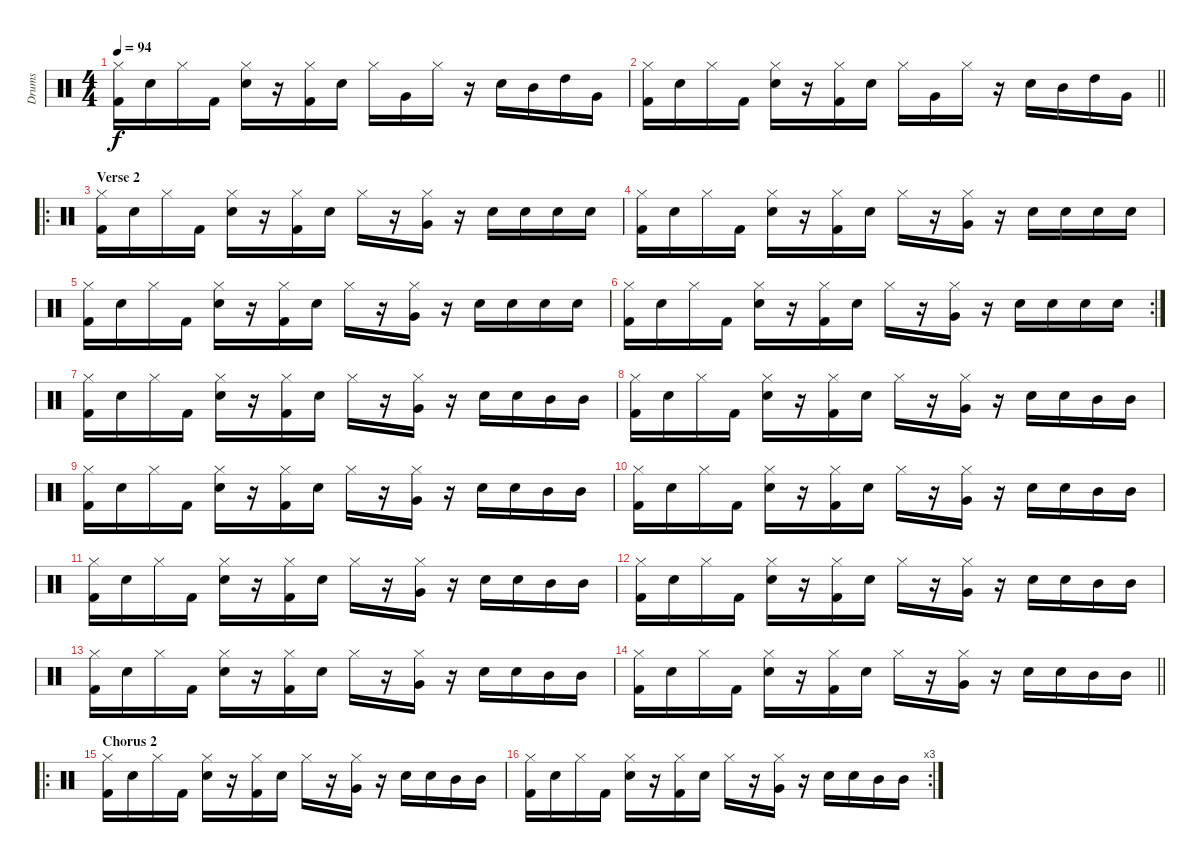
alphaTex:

\track ("Drums" "Drums") {instrument percussion}
\staff {score}
\articulation defaults
\ts (4 4)
\tempo 94
\clef neutral
\ks c
("Hi-Hat (closed)" "Kick (hit) 2").16{dy f} "Snare (hit) 2".16 "Hi-Hat (closed)".16 "Kick (hit) 2".16 ("Hi-Hat (closed)" "Snare (hit) 2").16 r.16 ("Hi-Hat (closed)" "Kick (hit) 2").16 "Snare (hit) 2".16 "Hi-Hat (closed)".16 "Very Low Tom (hit)".16 "Hi-Hat (closed)".16 r.16 "Snare (hit) 2".16 "Mid Tom (hit)".16 "High Tom (hit)".16 "Very Low Tom (hit)".16 |
\barLineRight lightlight
("Hi-Hat (closed)" "Kick (hit) 2").16 "Snare (hit) 2".16 "Hi-Hat (closed)".16 "Kick (hit) 2".16 ("Hi-Hat (closed)" "Snare (hit) 2").16 r.16 ("Hi-Hat (closed)" "Kick (hit) 2").16 "Snare (hit) 2".16 "Hi-Hat (closed)".16 "Very Low Tom (hit)".16 "Hi-Hat (closed)".16 r.16 "Snare (hit) 2".16 "Mid Tom (hit)".16 "High Tom (hit)".16 "Very Low Tom (hit)".16 |
\ro
\section ("" "Verse 2")
("Hi-Hat (closed)" "Kick (hit) 2").16 "Snare (hit) 2".16 "Hi-Hat (closed)".16 "Kick (hit) 2".16 ("Hi-Hat (closed)" "Snare (hit) 2").16 r.16 ("Hi-Hat (closed)" "Kick (hit) 2").16 "Snare (hit) 2".16 "Hi-Hat (closed)".16 r.16 ("Hi-Hat (closed)" "Very Low Tom (hit)").16 r.16 "Snare (hit) 2".16 "Snare (hit) 2".16 "Snare (hit) 2".16 "Snare (hit) 2".16 |
("Hi-Hat (closed)" "Kick (hit) 2").16 "Snare (hit) 2".16 "Hi-Hat (closed)".16 "Kick (hit) 2".16 ("Hi-Hat (closed)" "Snare (hit) 2").16 r.16 ("Hi-Hat (closed)" "Kick (hit) 2").16 "Snare (hit) 2".16 "Hi-Hat (closed)".16 r.16 ("Hi-Hat (closed)" "Very Low Tom (hit)").16 r.16 "Snare (hit) 2".16 "Snare (hit) 2".16 "Snare (hit) 2".16 "Snare (hit) 2".16 |
("Hi-Hat (closed)" "Kick (hit) 2").16 "Snare (hit) 2".16 "Hi-Hat (closed)".16 "Kick (hit) 2".16 ("Hi-Hat (closed)" "Snare (hit) 2").16 r.16 ("Hi-Hat (closed)" "Kick (hit) 2").16 "Snare (hit) 2".16 "Hi-Hat (closed)".16 r.16 ("Hi-Hat (closed)" "Very Low Tom (hit)").16 r.16 "Snare (hit) 2".16 "Snare (hit) 2".16 "Snare (hit) 2".16 "Snare (hit) 2".16 |
\rc 2
("Hi-Hat (closed)" "Kick (hit) 2").16 "Snare (hit) 2".16 "Hi-Hat (closed)".16 "Kick (hit) 2".16 ("Hi-Hat (closed)" "Snare (hit) 2").16 r.16 ("Hi-Hat (closed)" "Kick (hit) 2").16 "Snare (hit) 2".16 "Hi-Hat (closed)".16 r.16 ("Hi-Hat (closed)" "Very Low Tom (hit)").16 r.16 "Snare (hit) 2".16 "Snare (hit) 2".16 "Snare (hit) 2".16 "Snare (hit) 2".16 |
("Hi-Hat (closed)" "Kick (hit) 2").16 "Snare (hit) 2".16 "Hi-Hat (closed)".16 "Kick (hit) 2".16 ("Hi-Hat (closed)" "Snare (hit) 2").16 r.16 ("Hi-Hat (closed)" "Kick (hit) 2").16 "Snare (hit) 2".16 "Hi-Hat (closed)".16 r.16 ("Hi-Hat (closed)" "Very Low Tom (hit)").16 r.16 "Snare (hit) 2".16 "Snare (hit) 2".16 "Mid Tom (hit)".16 "Mid Tom (hit)".16 |
("Hi-Hat (closed)" "Kick (hit) 2").16 "Snare (hit) 2".16 "Hi-Hat (closed)".16 "Kick (hit) 2".16 ("Hi-Hat (closed)" "Snare (hit) 2").16 r.16 ("Hi-Hat (closed)" "Kick (hit) 2").16 "Snare (hit) 2".16 "Hi-Hat (closed)".16 r.16 ("Hi-Hat (closed)" "Very Low Tom (hit)").16 r.16 "Snare (hit) 2".16 "Snare (hit) 2".16 "Mid Tom (hit)".16 "Mid Tom (hit)".16 |
("Hi-Hat (closed)" "Kick (hit) 2").16 "Snare (hit) 2".16 "Hi-Hat (closed)".16 "Kick (hit) 2".16 ("Hi-Hat (closed)" "Snare (hit) 2").16 r.16 ("Hi-Hat (closed)" "Kick (hit) 2").16 "Snare (hit) 2".16 "Hi-Hat (closed)".16 r.16 ("Hi-Hat (closed)" "Very Low Tom (hit)").16 r.16 "Snare (hit) 2".16 "Snare (hit) 2".16 "Mid Tom (hit)".16 "Mid Tom (hit)".16 |
("Hi-Hat (closed)" "Kick (hit) 2").16 "Snare (hit) 2".16 "Hi-Hat (closed)".16 "Kick (hit) 2".16 ("Hi-Hat (closed)" "Snare (hit) 2").16 r.16 ("Hi-Hat (closed)" "Kick (hit) 2").16 "Snare (hit) 2".16 "Hi-Hat (closed)".16 r.16 ("Hi-Hat (closed)" "Very Low Tom (hit)").16 r.16 "Snare (hit) 2".16 "Snare (hit) 2".16 "Mid Tom (hit)".16 "Mid Tom (hit)".16 |
("Hi-Hat (closed)" "Kick (hit) 2").16 "Snare (hit) 2".16 "Hi-Hat (closed)".16 "Kick (hit) 2".16 ("Hi-Hat (closed)" "Snare (hit) 2").16 r.16 ("Hi-Hat (closed)" "Kick (hit) 2").16 "Snare (hit) 2".16 "Hi-Hat (closed)".16 r.16 ("Hi-Hat (closed)" "Very Low Tom (hit)").16 r.16 "Snare (hit) 2".16 "Snare (hit) 2".16 "Mid Tom (hit)".16 "Mid Tom (hit)".16 |
("Hi-Hat (closed)" "Kick (hit) 2").16 "Snare (hit) 2".16 "Hi-Hat (closed)".16 "Kick (hit) 2".16 ("Hi-Hat (closed)" "Snare (hit) 2").16 r.16 ("Hi-Hat (closed)" "Kick (hit) 2").16 "Snare (hit) 2".16 "Hi-Hat (closed)".16 r.16 ("Hi-Hat (closed)" "Very Low Tom (hit)").16 r.16 "Snare (hit) 2".16 "Snare (hit) 2".16 "Mid Tom (hit)".16 "Mid Tom (hit)".16 |
("Hi-Hat (closed)" "Kick (hit) 2").16 "Snare (hit) 2".16 "Hi-Hat (closed)".16 "Kick (hit) 2".16 ("Hi-Hat (closed)" "Snare (hit) 2").16 r.16 ("Hi-Hat (closed)" "Kick (hit) 2").16 "Snare (hit) 2".16 "Hi-Hat (closed)".16 r.16 ("Hi-Hat (closed)" "Very Low Tom (hit)").16 r.16 "Snare (hit) 2".16 "Snare (hit) 2".16 "Mid Tom (hit)".16 "Mid Tom (hit)".16 |
\barLineRight lightlight
("Hi-Hat (closed)" "Kick (hit) 2").16 "Snare (hit) 2".16 "Hi-Hat (closed)".16 "Kick (hit) 2".16 ("Hi-Hat (closed)" "Snare (hit) 2").16 r.16 ("Hi-Hat (closed)" "Kick (hit) 2").16 "Snare (hit) 2".16 "Hi-Hat (closed)".16 r.16 ("Hi-Hat (closed)" "Very Low Tom (hit)").16 r.16 "Snare (hit) 2".16 "Snare (hit) 2".16 "Mid Tom (hit)".16 "Mid Tom (hit)".16 |
\ro
\section ("" "Chorus 2")
("Hi-Hat (closed)" "Kick (hit) 2").16 "Snare (hit) 2".16 "Hi-Hat (closed)".16 "Kick (hit) 2".16 ("Hi-Hat (closed)" "Snare (hit) 2").16 r.16 ("Hi-Hat (closed)" "Kick (hit) 2").16 "Snare (hit) 2".16 "Hi-Hat (closed)".16 r.16 ("Hi-Hat (closed)" "Very Low Tom (hit)").16 r.16 "Snare (hit) 2".16 "Snare (hit) 2".16 "Mid Tom (hit)".16 "Mid Tom (hit)".16 |
\rc 3
("Hi-Hat (closed)" "Kick (hit) 2").16 "Snare (hit) 2".16 "Hi-Hat (closed)".16 "Kick (hit) 2".16 ("Hi-Hat (closed)" "Snare (hit) 2").16 r.16 ("Hi-Hat (closed)" "Kick (hit) 2").16 "Snare (hit) 2".16 "Hi-Hat (closed)".16 r.16 ("Hi-Hat (closed)" "Very Low Tom (hit)").16 r.16 "Snare (hit) 2".16 "Snare (hit) 2".16 "Mid Tom (hit)".16 "Mid Tom (hit)".16
